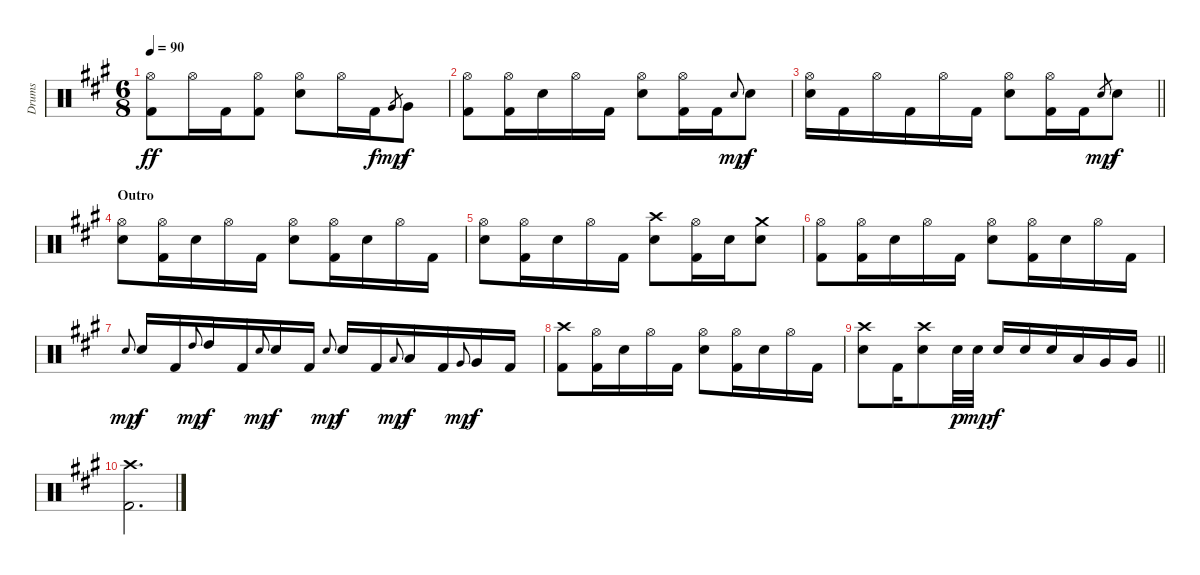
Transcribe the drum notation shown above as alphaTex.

\track ("Drums" "Drums") {instrument percussion}
\staff {score}
\articulation defaults
\ts (6 8)
\tempo 90
\clef neutral
\ks a
("Hi-Hat (open)" "Kick (hit) 2").8{dy ff} "Hi-Hat (open)".16 "Kick (hit) 2".16 ("Hi-Hat (open)" "Kick (hit) 2").8 ("Hi-Hat (open)" "Snare (hit) 2").8 "Hi-Hat (open)".16 "Kick (hit) 2".16{dy f} "Very Low Tom (hit)".8{gr dy mp} "Very Low Tom (hit)".8{dy f} |
("Hi-Hat (open)" "Kick (hit) 2").8 ("Hi-Hat (open)" "Kick (hit) 2").16 "Snare (hit) 2".16 "Hi-Hat (open)".16 "Kick (hit) 2".16 ("Hi-Hat (open)" "Snare (hit) 2").8 ("Hi-Hat (open)" "Kick (hit) 2").16 "Kick (hit) 2".16 "Snare (hit) 2".8{gr onbeat dy mp} "Snare (hit) 2".8{dy f} |
\barLineRight lightlight
("Hi-Hat (open)" "Snare (hit) 2").16 "Kick (hit) 2".16 "Hi-Hat (open)".16 "Kick (hit) 2".16 "Hi-Hat (open)".16 "Kick (hit) 2".16 ("Hi-Hat (open)" "Snare (hit) 2").8 ("Hi-Hat (open)" "Kick (hit) 2").16 "Kick (hit) 2".16 "Snare (hit) 2".8{gr dy mp} "Snare (hit) 2".8{dy f} |
\section ("" "Outro")
("Hi-Hat (open)" "Snare (hit) 2").8 ("Hi-Hat (open)" "Kick (hit) 2").16 "Snare (hit) 2".16 "Hi-Hat (open)".16 "Kick (hit) 2".16 ("Hi-Hat (open)" "Snare (hit) 2").8 ("Hi-Hat (open)" "Kick (hit) 2").16 "Snare (hit) 2".16 "Hi-Hat (open)".16 "Kick (hit) 2".16 |
("Hi-Hat (open)" "Snare (hit) 2").8 ("Hi-Hat (open)" "Kick (hit) 2").16 "Snare (hit) 2".16 "Hi-Hat (open)".16 "Kick (hit) 2".16 ("Crash high (hit)" "Snare (hit) 2").8 ("Hi-Hat (open)" "Kick (hit) 2").16 "Snare (hit) 2".16 ("Crash medium (hit)" "Snare (hit) 2").8 |
("Hi-Hat (open)" "Kick (hit) 2").8 ("Hi-Hat (open)" "Kick (hit) 2").16 "Snare (hit) 2".16 "Hi-Hat (open)".16 "Kick (hit) 2".16 ("Hi-Hat (open)" "Snare (hit) 2").8 ("Hi-Hat (open)" "Kick (hit) 2").16 "Snare (hit) 2".16 "Hi-Hat (open)".16 "Kick (hit) 2".16 |
"Snare (hit) 2".8{gr onbeat dy mp} "Snare (hit) 2".16{dy f} "Kick (hit) 2".16 "High Tom (hit)".8{gr onbeat dy mp} "High Tom (hit)".16{dy f} "Kick (hit) 2".16 "Snare (hit) 2".8{gr onbeat dy mp} "Snare (hit) 2".16{dy f} "Kick (hit) 2".16 "Snare (hit) 2".8{gr onbeat dy mp} "Snare (hit) 2".16{dy f} "Kick (hit) 2".16 "Low Tom (hit)".8{gr onbeat dy mp} "Low Tom (hit)".16{dy f} "Kick (hit) 2".16 "Very Low Tom (hit)".8{gr onbeat dy mp} "Very Low Tom (hit)".16{dy f} "Kick (hit) 2".16 |
("Crash high (hit)" "Kick (hit) 2").8 ("Hi-Hat (open)" "Kick (hit) 2").16 "Snare (hit) 2".16 "Hi-Hat (open)".16 "Kick (hit) 2".16 ("Hi-Hat (open)" "Snare (hit) 2").8 ("Hi-Hat (open)" "Kick (hit) 2").16 "Snare (hit) 2".16 "Hi-Hat (open)".16 "Kick (hit) 2".16 |
\barLineRight lightlight
("Crash high (hit)" "Snare (hit) 2").8 "Kick (hit) 2".16 ("Crash high (hit)" "Snare (hit) 2").8 "Snare (hit) 2".32{dy p} "Snare (hit) 2".32{dy mp} "Snare (hit) 2".16{dy f} "Snare (hit) 2".16 "Snare (hit) 2".16 "Low Tom (hit)".16 "Very Low Tom (hit)".16 "Very Low Tom (hit)".16 |
("Crash high (hit)" "Kick (hit) 2").2{d}
